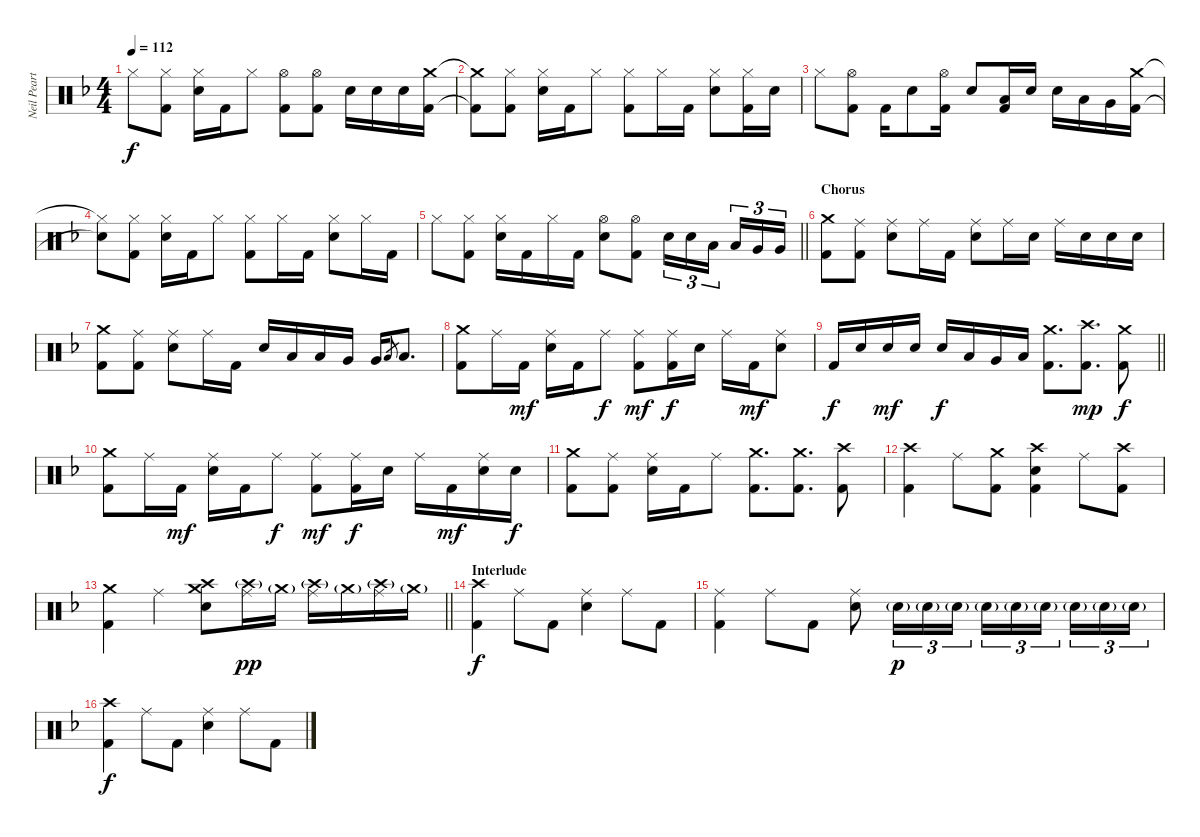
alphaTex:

\track ("Neil Peart" "Neil Peart") {instrument percussion}
\staff {score}
\articulation defaults
\ts (4 4)
\tempo 112
\clef neutral
\ks dminor "Hi-Hat (closed)".8{dy f}
("Hi-Hat (closed)" "Kick (hit) 2").8 ("Hi-Hat (closed)" "Electric Snare (hit)").16 "Kick (hit) 2".16 "Hi-Hat (closed)".8 ("Hi-Hat (open)" "Kick (hit) 2").8 ("Hi-Hat (open)" "Kick (hit) 2").8 "Electric Snare (hit)".16 "Electric Snare (hit)".16 "Electric Snare (hit)".16 ("Crash medium (hit)" "Kick (hit) 2").16 |
("Crash medium (hit)"{t} "Kick (hit) 2"{t}).8 ("Hi-Hat (closed)" "Kick (hit) 2").8 ("Hi-Hat (closed)" "Electric Snare (hit)").16 "Kick (hit) 2".16 "Hi-Hat (closed)".8 ("Hi-Hat (closed)" "Kick (hit) 2").8 "Hi-Hat (closed)".16 "Kick (hit) 2".16 ("Hi-Hat (closed)" "Electric Snare (hit)").8 ("Hi-Hat (closed)" "Kick (hit) 2").16 "Electric Snare (hit)".16 |
"Hi-Hat (closed)".8 ("Hi-Hat (open)" "Kick (hit) 2").8 "Kick (hit) 2".16 "Electric Snare (hit)".8 ("Hi-Hat (open)" "Kick (hit) 2").16 "Electric Snare (hit)".8 ("Low Tom (hit)" "Kick (hit) 2").16 "Electric Snare (hit)".16 "Electric Snare (hit)".16 "Low Tom (hit)".16 "Very Low Tom (hit)".16 ("Crash medium (hit)" "Kick (hit) 2").16 |
("Hi-Hat (closed)"{t} "Snare (hit)"{t}).8 ("Hi-Hat (closed)" "Kick (hit) 2").8 ("Hi-Hat (closed)" "Electric Snare (hit)").16 "Kick (hit) 2".16 "Hi-Hat (closed)".8 ("Hi-Hat (closed)" "Kick (hit) 2").8 "Hi-Hat (closed)".16 "Kick (hit) 2".16 ("Hi-Hat (closed)" "Electric Snare (hit)").8 "Hi-Hat (closed)".16 "Kick (hit) 2".16 |
\barLineRight lightlight "Hi-Hat (closed)".8
("Hi-Hat (closed)" "Kick (hit) 2").8 ("Hi-Hat (closed)" "Electric Snare (hit)").16 "Kick (hit) 2".16 "Hi-Hat (closed)".16 "Kick (hit) 2".16 ("Hi-Hat (open)" "Electric Snare (hit)").8 ("Hi-Hat (open)" "Kick (hit) 2").8 "Electric Snare (hit)".16{tu (3 2)} "Electric Snare (hit)".16{tu (3 2)} "Low Tom (hit)".16{tu (3 2) beam splitsecondary} "Low Tom (hit)".16{tu (3 2)} "Very Low Tom (hit)".16{tu (3 2)} "Very Low Tom (hit)".16{tu (3 2)} |
\section ("" "Chorus")
("Crash medium (hit)" "Kick (hit) 2").8 ("Ride (middle)" "Kick (hit) 2").8 ("Ride (middle)" "Electric Snare (hit)").8 "Ride (middle)".16 "Kick (hit) 2".16 ("Ride (middle)" "Electric Snare (hit)").8 "Ride (middle)".16 "Electric Snare (hit)".16 "Ride (middle)".16 "Electric Snare (hit)".16 "Electric Snare (hit)".16 "Electric Snare (hit)".16 |
("Crash medium (hit)" "Kick (hit) 2").8 ("Ride (middle)" "Kick (hit) 2").8 ("Ride (middle)" "Electric Snare (hit)").8 "Ride (middle)".16 "Kick (hit) 2".16 "Electric Snare (hit)".16 "Low Tom (hit)".16 "Low Tom (hit)".16 "Very Low Tom (hit)".16 "Very Low Tom (hit)".16 "Low Floor Tom (hit)".8{gr} "Low Floor Tom (hit)".8{d} |
("Crash medium (hit)" "Kick (hit) 2").8 "Ride (middle)".16 "Kick (hit) 2".16{dy mf} ("Ride (middle)" "Electric Snare (hit)").16 "Kick (hit) 2".16 "Ride (middle)".8{dy f} ("Ride (middle)" "Kick (hit) 2").8{dy mf} ("Ride (middle)" "Kick (hit) 2").16{dy f} "Electric Snare (hit)".16 "Ride (middle)".16 "Kick (hit) 2".16{dy mf} ("Ride (middle)" "Electric Snare (hit)").8 |
\barLineRight lightlight "Kick (hit) 2".16{dy f} "Electric Snare (hit)".16 "Electric Snare (hit)".16{dy mf} "Electric Snare (hit)".16 "Electric Snare (hit)".16{dy f} "Low Tom (hit)".16 "Very Low Tom (hit)".16 "Low Floor Tom (hit)".16
("Crash medium (hit)" "Kick (hit) 2").8{d} ("Crash high (hit)" "Kick (hit) 2").8{d dy mp} ("Crash medium (hit)" "Kick (hit) 2").8{dy f} |
("Crash medium (hit)" "Kick (hit) 2").8 "Ride (middle)".16 "Kick (hit) 2".16{dy mf} ("Ride (middle)" "Electric Snare (hit)").16 "Kick (hit) 2".16 "Ride (middle)".8{dy f} ("Ride (middle)" "Kick (hit) 2").8{dy mf} ("Ride (middle)" "Kick (hit) 2").16{dy f} "Electric Snare (hit)".16 "Ride (middle)".16 "Kick (hit) 2".16{dy mf} ("Ride (middle)" "Electric Snare (hit)").16 "Electric Snare (hit)".16{dy f} |
("Crash medium (hit)" "Kick (hit) 2").8 ("Ride (middle)" "Kick (hit) 2").8 ("Ride (middle)" "Electric Snare (hit)").16 "Kick (hit) 2".16 "Ride (middle)".8 ("Crash medium (hit)" "Kick (hit) 2").8{d} ("Crash medium (hit)" "Kick (hit) 2").8{d} ("Crash high (hit)" "Kick (hit) 2").8 |
("Crash high (hit)" "Kick (hit) 2").4 "Ride (middle)".8 ("Crash medium (hit)" "Kick (hit) 2").8 ("Crash high (hit)" "Electric Snare (hit)" "Kick (hit) 2").4 "Ride (middle)".8 ("Crash high (hit)" "Kick (hit) 2").8 |
\barLineRight lightlight
("Crash medium (hit)" "Kick (hit) 2").4 "Ride (middle)".4 ("Crash high (hit)" "Crash medium (hit)" "Electric Snare (hit)").8 ("Ride (middle)" "Crash high (hit)"{g}).16{dy pp} "Crash medium (hit)"{g}.16 ("Ride (middle)" "Crash high (hit)"{g}).16 "Crash medium (hit)"{g}.16 ("Ride (middle)" "Crash high (hit)"{g}).16 "Crash medium (hit)"{g}.16 |
\section ("" "Interlude")
("Crash high (hit)" "Kick (hit) 2").4{dy f} "Ride (middle)".8 "Kick (hit) 2".8 ("Ride (middle)" "Electric Snare (hit)").4 "Ride (middle)".8 "Kick (hit) 2".8 |
("Ride (middle)" "Kick (hit) 2").4 "Ride (middle)".8 "Kick (hit) 2".8 ("Ride (middle)" "Electric Snare (hit)").8 "Electric Snare (hit)"{g}.16{tu (3 2) dy p} "Electric Snare (hit)"{g}.16{tu (3 2)} "Electric Snare (hit)"{g}.16{tu (3 2)} "Electric Snare (hit)"{g}.16{tu (3 2)} "Electric Snare (hit)"{g}.16{tu (3 2)} "Electric Snare (hit)"{g}.16{tu (3 2) beam splitsecondary} "Electric Snare (hit)"{g}.16{tu (3 2)} "Electric Snare (hit)"{g}.16{tu (3 2)} "Electric Snare (hit)"{g}.16{tu (3 2)} |
("Crash high (hit)" "Kick (hit) 2").4{dy f} "Ride (middle)".8 "Kick (hit) 2".8 ("Ride (middle)" "Electric Snare (hit)").4 "Ride (middle)".8 "Kick (hit) 2".8
